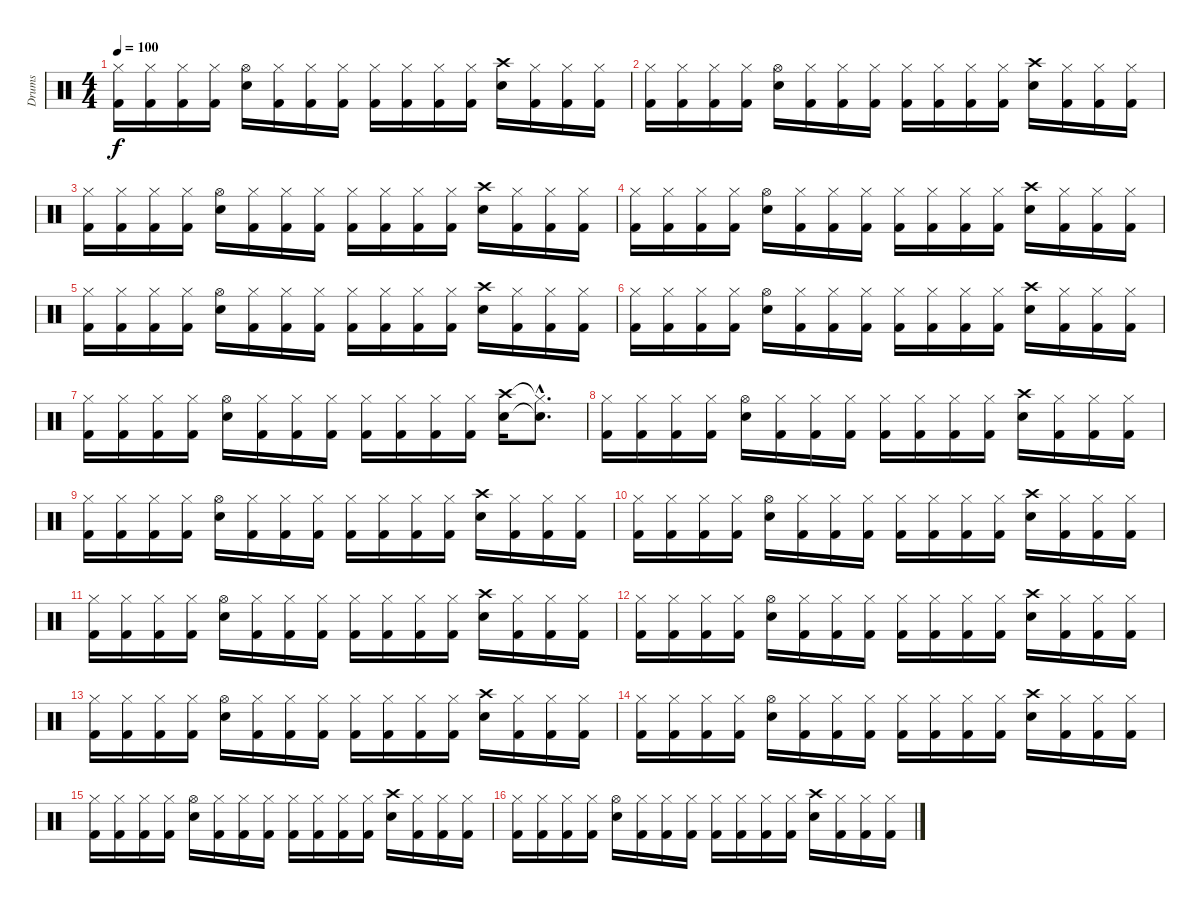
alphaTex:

\track ("Drums" "Drums") {instrument percussion}
\staff {score}
\articulation defaults
\ts (4 4)
\tempo 100
\clef neutral
\ks c
("Hi-Hat (closed)" "Kick (hit) 2").16{dy f} ("Hi-Hat (closed)" "Kick (hit) 2").16 ("Hi-Hat (closed)" "Kick (hit) 2").16 ("Hi-Hat (closed)" "Kick (hit) 2").16 ("Hi-Hat (open)" "Electric Snare (hit)").16 ("Hi-Hat (closed)" "Kick (hit) 2").16 ("Hi-Hat (closed)" "Kick (hit) 2").16 ("Hi-Hat (closed)" "Kick (hit) 2").16 ("Hi-Hat (closed)" "Kick (hit) 2").16 ("Hi-Hat (closed)" "Kick (hit) 2").16 ("Hi-Hat (closed)" "Kick (hit) 2").16 ("Hi-Hat (closed)" "Kick (hit) 2").16 ("Crash high (hit)" "Electric Snare (hit)").16 ("Hi-Hat (closed)" "Kick (hit) 2").16 ("Hi-Hat (closed)" "Kick (hit) 2").16 ("Hi-Hat (closed)" "Kick (hit) 2").16 |
("Hi-Hat (closed)" "Kick (hit) 2").16 ("Hi-Hat (closed)" "Kick (hit) 2").16 ("Hi-Hat (closed)" "Kick (hit) 2").16 ("Hi-Hat (closed)" "Kick (hit) 2").16 ("Hi-Hat (open)" "Electric Snare (hit)").16 ("Hi-Hat (closed)" "Kick (hit) 2").16 ("Hi-Hat (closed)" "Kick (hit) 2").16 ("Hi-Hat (closed)" "Kick (hit) 2").16 ("Hi-Hat (closed)" "Kick (hit) 2").16 ("Hi-Hat (closed)" "Kick (hit) 2").16 ("Hi-Hat (closed)" "Kick (hit) 2").16 ("Hi-Hat (closed)" "Kick (hit) 2").16 ("Crash high (hit)" "Electric Snare (hit)").16 ("Hi-Hat (closed)" "Kick (hit) 2").16 ("Hi-Hat (closed)" "Kick (hit) 2").16 ("Hi-Hat (closed)" "Kick (hit) 2").16 |
("Hi-Hat (closed)" "Kick (hit) 2").16 ("Hi-Hat (closed)" "Kick (hit) 2").16 ("Hi-Hat (closed)" "Kick (hit) 2").16 ("Hi-Hat (closed)" "Kick (hit) 2").16 ("Hi-Hat (open)" "Electric Snare (hit)").16 ("Hi-Hat (closed)" "Kick (hit) 2").16 ("Hi-Hat (closed)" "Kick (hit) 2").16 ("Hi-Hat (closed)" "Kick (hit) 2").16 ("Hi-Hat (closed)" "Kick (hit) 2").16 ("Hi-Hat (closed)" "Kick (hit) 2").16 ("Hi-Hat (closed)" "Kick (hit) 2").16 ("Hi-Hat (closed)" "Kick (hit) 2").16 ("Crash high (hit)" "Electric Snare (hit)").16 ("Hi-Hat (closed)" "Kick (hit) 2").16 ("Hi-Hat (closed)" "Kick (hit) 2").16 ("Hi-Hat (closed)" "Kick (hit) 2").16 |
("Hi-Hat (closed)" "Kick (hit) 2").16 ("Hi-Hat (closed)" "Kick (hit) 2").16 ("Hi-Hat (closed)" "Kick (hit) 2").16 ("Hi-Hat (closed)" "Kick (hit) 2").16 ("Hi-Hat (open)" "Electric Snare (hit)").16 ("Hi-Hat (closed)" "Kick (hit) 2").16 ("Hi-Hat (closed)" "Kick (hit) 2").16 ("Hi-Hat (closed)" "Kick (hit) 2").16 ("Hi-Hat (closed)" "Kick (hit) 2").16 ("Hi-Hat (closed)" "Kick (hit) 2").16 ("Hi-Hat (closed)" "Kick (hit) 2").16 ("Hi-Hat (closed)" "Kick (hit) 2").16 ("Crash high (hit)" "Electric Snare (hit)").16 ("Hi-Hat (closed)" "Kick (hit) 2").16 ("Hi-Hat (closed)" "Kick (hit) 2").16 ("Hi-Hat (closed)" "Kick (hit) 2").16 |
("Hi-Hat (closed)" "Kick (hit) 2").16 ("Hi-Hat (closed)" "Kick (hit) 2").16 ("Hi-Hat (closed)" "Kick (hit) 2").16 ("Hi-Hat (closed)" "Kick (hit) 2").16 ("Hi-Hat (open)" "Electric Snare (hit)").16 ("Hi-Hat (closed)" "Kick (hit) 2").16 ("Hi-Hat (closed)" "Kick (hit) 2").16 ("Hi-Hat (closed)" "Kick (hit) 2").16 ("Hi-Hat (closed)" "Kick (hit) 2").16 ("Hi-Hat (closed)" "Kick (hit) 2").16 ("Hi-Hat (closed)" "Kick (hit) 2").16 ("Hi-Hat (closed)" "Kick (hit) 2").16 ("Crash high (hit)" "Electric Snare (hit)").16 ("Hi-Hat (closed)" "Kick (hit) 2").16 ("Hi-Hat (closed)" "Kick (hit) 2").16 ("Hi-Hat (closed)" "Kick (hit) 2").16 |
("Hi-Hat (closed)" "Kick (hit) 2").16 ("Hi-Hat (closed)" "Kick (hit) 2").16 ("Hi-Hat (closed)" "Kick (hit) 2").16 ("Hi-Hat (closed)" "Kick (hit) 2").16 ("Hi-Hat (open)" "Electric Snare (hit)").16 ("Hi-Hat (closed)" "Kick (hit) 2").16 ("Hi-Hat (closed)" "Kick (hit) 2").16 ("Hi-Hat (closed)" "Kick (hit) 2").16 ("Hi-Hat (closed)" "Kick (hit) 2").16 ("Hi-Hat (closed)" "Kick (hit) 2").16 ("Hi-Hat (closed)" "Kick (hit) 2").16 ("Hi-Hat (closed)" "Kick (hit) 2").16 ("Crash high (hit)" "Electric Snare (hit)").16 ("Hi-Hat (closed)" "Kick (hit) 2").16 ("Hi-Hat (closed)" "Kick (hit) 2").16 ("Hi-Hat (closed)" "Kick (hit) 2").16 |
("Hi-Hat (closed)" "Kick (hit) 2").16 ("Hi-Hat (closed)" "Kick (hit) 2").16 ("Hi-Hat (closed)" "Kick (hit) 2").16 ("Hi-Hat (closed)" "Kick (hit) 2").16 ("Hi-Hat (open)" "Electric Snare (hit)").16 ("Hi-Hat (closed)" "Kick (hit) 2").16 ("Hi-Hat (closed)" "Kick (hit) 2").16 ("Hi-Hat (closed)" "Kick (hit) 2").16 ("Hi-Hat (closed)" "Kick (hit) 2").16 ("Hi-Hat (closed)" "Kick (hit) 2").16 ("Hi-Hat (closed)" "Kick (hit) 2").16 ("Hi-Hat (closed)" "Kick (hit) 2").16 ("Crash high (hit)" "Electric Snare (hit)").16 ("Hi-Hat (closed)"{hac t} "Snare (hit)"{hac t}).8{d} |
("Hi-Hat (closed)" "Kick (hit) 2").16 ("Hi-Hat (closed)" "Kick (hit) 2").16 ("Hi-Hat (closed)" "Kick (hit) 2").16 ("Hi-Hat (closed)" "Kick (hit) 2").16 ("Hi-Hat (open)" "Electric Snare (hit)").16 ("Hi-Hat (closed)" "Kick (hit) 2").16 ("Hi-Hat (closed)" "Kick (hit) 2").16 ("Hi-Hat (closed)" "Kick (hit) 2").16 ("Hi-Hat (closed)" "Kick (hit) 2").16 ("Hi-Hat (closed)" "Kick (hit) 2").16 ("Hi-Hat (closed)" "Kick (hit) 2").16 ("Hi-Hat (closed)" "Kick (hit) 2").16 ("Crash high (hit)" "Electric Snare (hit)").16 ("Hi-Hat (closed)" "Kick (hit) 2").16 ("Hi-Hat (closed)" "Kick (hit) 2").16 ("Hi-Hat (closed)" "Kick (hit) 2").16 |
("Hi-Hat (closed)" "Kick (hit) 2").16 ("Hi-Hat (closed)" "Kick (hit) 2").16 ("Hi-Hat (closed)" "Kick (hit) 2").16 ("Hi-Hat (closed)" "Kick (hit) 2").16 ("Hi-Hat (open)" "Electric Snare (hit)").16 ("Hi-Hat (closed)" "Kick (hit) 2").16 ("Hi-Hat (closed)" "Kick (hit) 2").16 ("Hi-Hat (closed)" "Kick (hit) 2").16 ("Hi-Hat (closed)" "Kick (hit) 2").16 ("Hi-Hat (closed)" "Kick (hit) 2").16 ("Hi-Hat (closed)" "Kick (hit) 2").16 ("Hi-Hat (closed)" "Kick (hit) 2").16 ("Crash high (hit)" "Electric Snare (hit)").16 ("Hi-Hat (closed)" "Kick (hit) 2").16 ("Hi-Hat (closed)" "Kick (hit) 2").16 ("Hi-Hat (closed)" "Kick (hit) 2").16 |
("Hi-Hat (closed)" "Kick (hit) 2").16 ("Hi-Hat (closed)" "Kick (hit) 2").16 ("Hi-Hat (closed)" "Kick (hit) 2").16 ("Hi-Hat (closed)" "Kick (hit) 2").16 ("Hi-Hat (open)" "Electric Snare (hit)").16 ("Hi-Hat (closed)" "Kick (hit) 2").16 ("Hi-Hat (closed)" "Kick (hit) 2").16 ("Hi-Hat (closed)" "Kick (hit) 2").16 ("Hi-Hat (closed)" "Kick (hit) 2").16 ("Hi-Hat (closed)" "Kick (hit) 2").16 ("Hi-Hat (closed)" "Kick (hit) 2").16 ("Hi-Hat (closed)" "Kick (hit) 2").16 ("Crash high (hit)" "Electric Snare (hit)").16 ("Hi-Hat (closed)" "Kick (hit) 2").16 ("Hi-Hat (closed)" "Kick (hit) 2").16 ("Hi-Hat (closed)" "Kick (hit) 2").16 |
("Hi-Hat (closed)" "Kick (hit) 2").16 ("Hi-Hat (closed)" "Kick (hit) 2").16 ("Hi-Hat (closed)" "Kick (hit) 2").16 ("Hi-Hat (closed)" "Kick (hit) 2").16 ("Hi-Hat (open)" "Electric Snare (hit)").16 ("Hi-Hat (closed)" "Kick (hit) 2").16 ("Hi-Hat (closed)" "Kick (hit) 2").16 ("Hi-Hat (closed)" "Kick (hit) 2").16 ("Hi-Hat (closed)" "Kick (hit) 2").16 ("Hi-Hat (closed)" "Kick (hit) 2").16 ("Hi-Hat (closed)" "Kick (hit) 2").16 ("Hi-Hat (closed)" "Kick (hit) 2").16 ("Crash high (hit)" "Electric Snare (hit)").16 ("Hi-Hat (closed)" "Kick (hit) 2").16 ("Hi-Hat (closed)" "Kick (hit) 2").16 ("Hi-Hat (closed)" "Kick (hit) 2").16 |
("Hi-Hat (closed)" "Kick (hit) 2").16 ("Hi-Hat (closed)" "Kick (hit) 2").16 ("Hi-Hat (closed)" "Kick (hit) 2").16 ("Hi-Hat (closed)" "Kick (hit) 2").16 ("Hi-Hat (open)" "Electric Snare (hit)").16 ("Hi-Hat (closed)" "Kick (hit) 2").16 ("Hi-Hat (closed)" "Kick (hit) 2").16 ("Hi-Hat (closed)" "Kick (hit) 2").16 ("Hi-Hat (closed)" "Kick (hit) 2").16 ("Hi-Hat (closed)" "Kick (hit) 2").16 ("Hi-Hat (closed)" "Kick (hit) 2").16 ("Hi-Hat (closed)" "Kick (hit) 2").16 ("Crash high (hit)" "Electric Snare (hit)").16 ("Hi-Hat (closed)" "Kick (hit) 2").16 ("Hi-Hat (closed)" "Kick (hit) 2").16 ("Hi-Hat (closed)" "Kick (hit) 2").16 |
("Hi-Hat (closed)" "Kick (hit) 2").16 ("Hi-Hat (closed)" "Kick (hit) 2").16 ("Hi-Hat (closed)" "Kick (hit) 2").16 ("Hi-Hat (closed)" "Kick (hit) 2").16 ("Hi-Hat (open)" "Electric Snare (hit)").16 ("Hi-Hat (closed)" "Kick (hit) 2").16 ("Hi-Hat (closed)" "Kick (hit) 2").16 ("Hi-Hat (closed)" "Kick (hit) 2").16 ("Hi-Hat (closed)" "Kick (hit) 2").16 ("Hi-Hat (closed)" "Kick (hit) 2").16 ("Hi-Hat (closed)" "Kick (hit) 2").16 ("Hi-Hat (closed)" "Kick (hit) 2").16 ("Crash high (hit)" "Electric Snare (hit)").16 ("Hi-Hat (closed)" "Kick (hit) 2").16 ("Hi-Hat (closed)" "Kick (hit) 2").16 ("Hi-Hat (closed)" "Kick (hit) 2").16 |
("Hi-Hat (closed)" "Kick (hit) 2").16 ("Hi-Hat (closed)" "Kick (hit) 2").16 ("Hi-Hat (closed)" "Kick (hit) 2").16 ("Hi-Hat (closed)" "Kick (hit) 2").16 ("Hi-Hat (open)" "Electric Snare (hit)").16 ("Hi-Hat (closed)" "Kick (hit) 2").16 ("Hi-Hat (closed)" "Kick (hit) 2").16 ("Hi-Hat (closed)" "Kick (hit) 2").16 ("Hi-Hat (closed)" "Kick (hit) 2").16 ("Hi-Hat (closed)" "Kick (hit) 2").16 ("Hi-Hat (closed)" "Kick (hit) 2").16 ("Hi-Hat (closed)" "Kick (hit) 2").16 ("Crash high (hit)" "Electric Snare (hit)").16 ("Hi-Hat (closed)" "Kick (hit) 2").16 ("Hi-Hat (closed)" "Kick (hit) 2").16 ("Hi-Hat (closed)" "Kick (hit) 2").16 |
("Hi-Hat (closed)" "Kick (hit) 2").16 ("Hi-Hat (closed)" "Kick (hit) 2").16 ("Hi-Hat (closed)" "Kick (hit) 2").16 ("Hi-Hat (closed)" "Kick (hit) 2").16 ("Hi-Hat (open)" "Electric Snare (hit)").16 ("Hi-Hat (closed)" "Kick (hit) 2").16 ("Hi-Hat (closed)" "Kick (hit) 2").16 ("Hi-Hat (closed)" "Kick (hit) 2").16 ("Hi-Hat (closed)" "Kick (hit) 2").16 ("Hi-Hat (closed)" "Kick (hit) 2").16 ("Hi-Hat (closed)" "Kick (hit) 2").16 ("Hi-Hat (closed)" "Kick (hit) 2").16 ("Crash high (hit)" "Electric Snare (hit)").16 ("Hi-Hat (closed)" "Kick (hit) 2").16 ("Hi-Hat (closed)" "Kick (hit) 2").16 ("Hi-Hat (closed)" "Kick (hit) 2").16 |
("Hi-Hat (closed)" "Kick (hit) 2").16 ("Hi-Hat (closed)" "Kick (hit) 2").16 ("Hi-Hat (closed)" "Kick (hit) 2").16 ("Hi-Hat (closed)" "Kick (hit) 2").16 ("Hi-Hat (open)" "Electric Snare (hit)").16 ("Hi-Hat (closed)" "Kick (hit) 2").16 ("Hi-Hat (closed)" "Kick (hit) 2").16 ("Hi-Hat (closed)" "Kick (hit) 2").16 ("Hi-Hat (closed)" "Kick (hit) 2").16 ("Hi-Hat (closed)" "Kick (hit) 2").16 ("Hi-Hat (closed)" "Kick (hit) 2").16 ("Hi-Hat (closed)" "Kick (hit) 2").16 ("Crash high (hit)" "Electric Snare (hit)").16 ("Hi-Hat (closed)" "Kick (hit) 2").16 ("Hi-Hat (closed)" "Kick (hit) 2").16 ("Hi-Hat (closed)" "Kick (hit) 2").16
